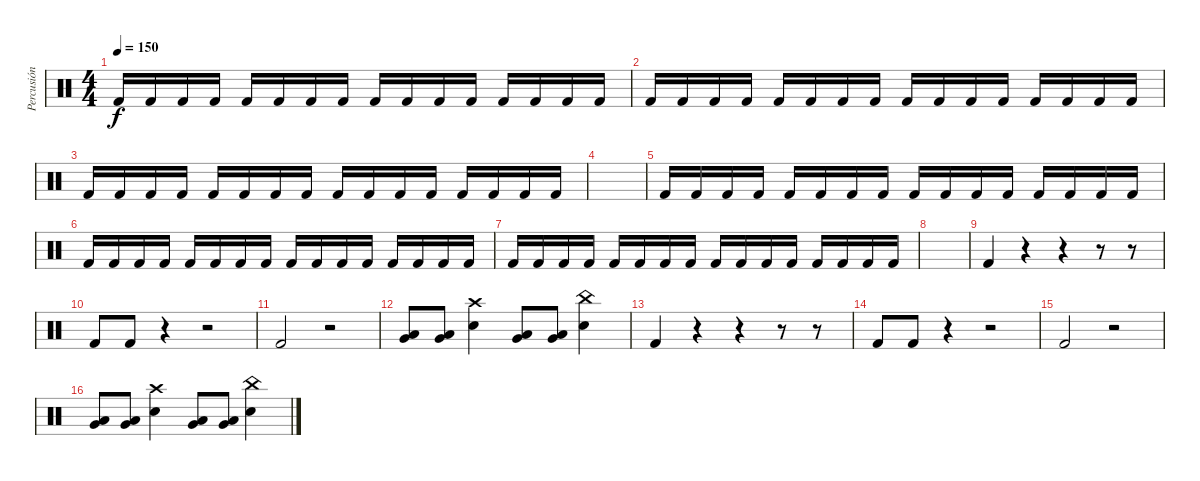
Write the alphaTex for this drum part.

\track ("Percusión" "Percusión") {instrument percussion}
\staff {score}
\articulation defaults
\ts (4 4)
\tempo 150
\clef neutral
\ks c "Kick (hit) 2".16{dy f} "Kick (hit) 2".16 "Kick (hit) 2".16 "Kick (hit) 2".16 "Kick (hit) 2".16 "Kick (hit) 2".16 "Kick (hit) 2".16 "Kick (hit) 2".16 "Kick (hit) 2".16 "Kick (hit) 2".16 "Kick (hit) 2".16 "Kick (hit) 2".16 "Kick (hit) 2".16 "Kick (hit) 2".16 "Kick (hit) 2".16 "Kick (hit) 2".16
|
"Kick (hit) 2".16 "Kick (hit) 2".16 "Kick (hit) 2".16 "Kick (hit) 2".16 "Kick (hit) 2".16 "Kick (hit) 2".16 "Kick (hit) 2".16 "Kick (hit) 2".16 "Kick (hit) 2".16 "Kick (hit) 2".16 "Kick (hit) 2".16 "Kick (hit) 2".16 "Kick (hit) 2".16 "Kick (hit) 2".16 "Kick (hit) 2".16 "Kick (hit) 2".16 |
"Kick (hit) 2".16 "Kick (hit) 2".16 "Kick (hit) 2".16 "Kick (hit) 2".16 "Kick (hit) 2".16 "Kick (hit) 2".16 "Kick (hit) 2".16 "Kick (hit) 2".16 "Kick (hit) 2".16 "Kick (hit) 2".16 "Kick (hit) 2".16 "Kick (hit) 2".16 "Kick (hit) 2".16 "Kick (hit) 2".16 "Kick (hit) 2".16 "Kick (hit) 2".16 |
|
"Kick (hit) 2".16 "Kick (hit) 2".16 "Kick (hit) 2".16 "Kick (hit) 2".16 "Kick (hit) 2".16 "Kick (hit) 2".16 "Kick (hit) 2".16 "Kick (hit) 2".16 "Kick (hit) 2".16 "Kick (hit) 2".16 "Kick (hit) 2".16 "Kick (hit) 2".16 "Kick (hit) 2".16 "Kick (hit) 2".16 "Kick (hit) 2".16 "Kick (hit) 2".16 |
"Kick (hit) 2".16 "Kick (hit) 2".16 "Kick (hit) 2".16 "Kick (hit) 2".16 "Kick (hit) 2".16 "Kick (hit) 2".16 "Kick (hit) 2".16 "Kick (hit) 2".16 "Kick (hit) 2".16 "Kick (hit) 2".16 "Kick (hit) 2".16 "Kick (hit) 2".16 "Kick (hit) 2".16 "Kick (hit) 2".16 "Kick (hit) 2".16 "Kick (hit) 2".16 |
"Kick (hit) 2".16 "Kick (hit) 2".16 "Kick (hit) 2".16 "Kick (hit) 2".16 "Kick (hit) 2".16 "Kick (hit) 2".16 "Kick (hit) 2".16 "Kick (hit) 2".16 "Kick (hit) 2".16 "Kick (hit) 2".16 "Kick (hit) 2".16 "Kick (hit) 2".16 "Kick (hit) 2".16 "Kick (hit) 2".16 "Kick (hit) 2".16 "Kick (hit) 2".16 |
|
"Kick (hit) 2".4 r.4 r.4 r.8 r.8 |
"Kick (hit) 2".8 "Kick (hit) 2".8 r.4 r.2 |
"Kick (hit) 2".2 r.2 |
("Very Low Tom (hit)" "Low Floor Tom (hit)").8 ("Very Low Tom (hit)" "Low Floor Tom (hit)").8 ("Snare (hit) 2" "Crash high (hit)").4 ("Very Low Tom (hit)" "Low Floor Tom (hit)").8 ("Very Low Tom (hit)" "Low Floor Tom (hit)").8 ("Snare (hit) 2" "China (hit)").4 |
"Kick (hit) 2".4 r.4 r.4 r.8 r.8 |
"Kick (hit) 2".8 "Kick (hit) 2".8 r.4 r.2 |
"Kick (hit) 2".2 r.2 |
("Very Low Tom (hit)" "Low Floor Tom (hit)").8 ("Very Low Tom (hit)" "Low Floor Tom (hit)").8 ("Snare (hit) 2" "Crash high (hit)").4 ("Very Low Tom (hit)" "Low Floor Tom (hit)").8 ("Very Low Tom (hit)" "Low Floor Tom (hit)").8 ("Snare (hit) 2" "China (hit)").4
